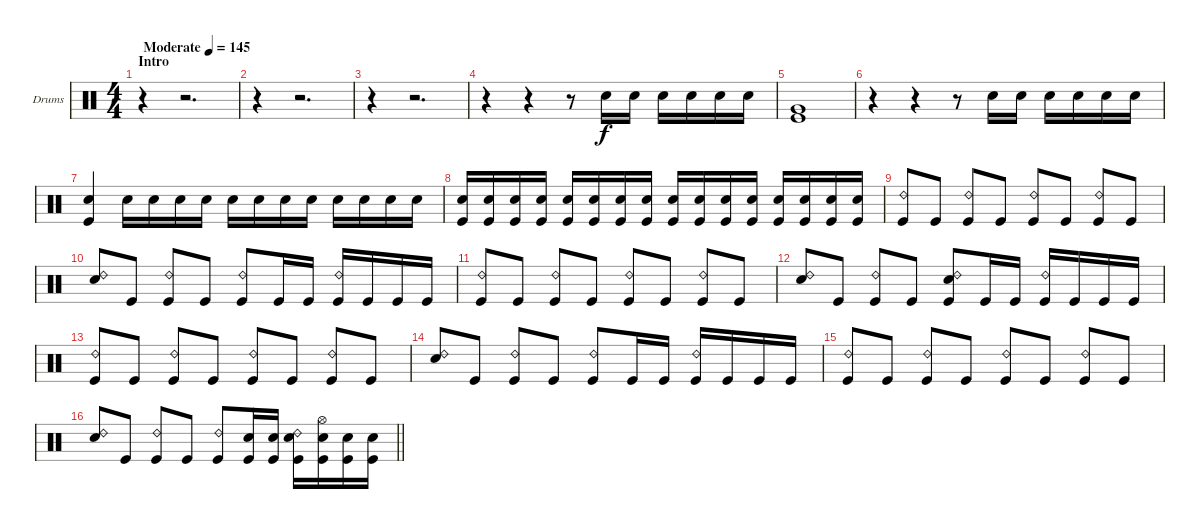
\bracketExtendMode groupsimilarinstruments
\firstSystemTrackNameOrientation horizontal
\otherSystemsTrackNameOrientation horizontal
\track ("Drumkit" "Drums") {instrument percussion}
\staff {score}
\articulation defaults
\ts (4 4)
\beaming (8 2 2 2 2)
\section ("" "Intro")
\tempo (145 "Moderate")
\clef neutral
\ks c
r.4{dy f} r.2{d} |
r.4 r.2{d} |
r.4 r.2{d} |
r.4 r.4 r.8 "Snare (hit) 2".16 "Snare (hit) 2".16 "Snare (hit) 2".16 "Snare (hit) 2".16 "Snare (hit) 2".16 "Snare (hit) 2".16 |
("Very Low Tom (hit)" "Kick (hit)").1 |
r.4 r.4 r.8 "Snare (hit) 2".16 "Snare (hit) 2".16 "Snare (hit) 2".16 "Snare (hit) 2".16 "Snare (hit) 2".16 "Snare (hit) 2".16 |
("Snare (hit) 2" "Kick (hit)").4 "Snare (hit) 2".16 "Snare (hit) 2".16 "Snare (hit) 2".16 "Snare (hit) 2".16 "Snare (hit) 2".16 "Snare (hit) 2".16 "Snare (hit) 2".16 "Snare (hit) 2".16 "Snare (hit) 2".16 "Snare (hit) 2".16 "Snare (hit) 2".16 "Snare (hit) 2".16 |
("Snare (hit) 2" "Kick (hit)").16 ("Snare (hit) 2" "Kick (hit)").16 ("Snare (hit) 2" "Kick (hit)").16 ("Snare (hit) 2" "Kick (hit)").16 ("Snare (hit) 2" "Kick (hit)").16 ("Snare (hit) 2" "Kick (hit)").16 ("Snare (hit) 2" "Kick (hit)").16 ("Snare (hit) 2" "Kick (hit)").16 ("Snare (hit) 2" "Kick (hit)").16 ("Snare (hit) 2" "Kick (hit)").16 ("Snare (hit) 2" "Kick (hit)").16 ("Snare (hit) 2" "Kick (hit)").16 ("Snare (hit) 2" "Kick (hit)").16 ("Snare (hit) 2" "Kick (hit)").16 ("Snare (hit) 2" "Kick (hit)").16 ("Snare (hit) 2" "Kick (hit)").16 |
("Ride (bell) 2" "Kick (hit)").8 "Kick (hit)".8 ("Ride (bell) 2" "Kick (hit)").8 "Kick (hit)".8 ("Ride (bell) 2" "Kick (hit)").8 "Kick (hit)".8 ("Ride (bell) 2" "Kick (hit)").8 "Kick (hit)".8 |
("Ride (bell) 2" "Snare (hit) 2").8 "Kick (hit)".8 ("Ride (bell) 2" "Kick (hit)").8 "Kick (hit)".8 ("Ride (bell) 2" "Kick (hit)").8 "Kick (hit)".16 "Kick (hit)".16 ("Ride (bell) 2" "Kick (hit)").16 "Kick (hit)".16 "Kick (hit)".16 "Kick (hit)".16 |
("Ride (bell) 2" "Kick (hit)").8 "Kick (hit)".8 ("Ride (bell) 2" "Kick (hit)").8 "Kick (hit)".8 ("Ride (bell) 2" "Kick (hit)").8 "Kick (hit)".8 ("Ride (bell) 2" "Kick (hit)").8 "Kick (hit)".8 |
("Ride (bell) 2" "Snare (hit) 2").8 "Kick (hit)".8 ("Ride (bell) 2" "Kick (hit)").8 "Kick (hit)".8 ("Ride (bell) 2" "Snare (hit) 2" "Kick (hit)").8 "Kick (hit)".16 "Kick (hit)".16 ("Ride (bell) 2" "Kick (hit)").16 "Kick (hit)".16 "Kick (hit)".16 "Kick (hit)".16 |
("Ride (bell) 2" "Kick (hit)").8 "Kick (hit)".8 ("Ride (bell) 2" "Kick (hit)").8 "Kick (hit)".8 ("Ride (bell) 2" "Kick (hit)").8 "Kick (hit)".8 ("Ride (bell) 2" "Kick (hit)").8 "Kick (hit)".8 |
("Ride (bell) 2" "Snare (hit) 2").8 "Kick (hit)".8 ("Ride (bell) 2" "Kick (hit)").8 "Kick (hit)".8 ("Ride (bell) 2" "Kick (hit)").8 "Kick (hit)".16 "Kick (hit)".16 ("Ride (bell) 2" "Kick (hit)").16 "Kick (hit)".16 "Kick (hit)".16 "Kick (hit)".16 |
("Ride (bell) 2" "Kick (hit)").8 "Kick (hit)".8 ("Ride (bell) 2" "Kick (hit)").8 "Kick (hit)".8 ("Ride (bell) 2" "Kick (hit)").8 "Kick (hit)".8 ("Ride (bell) 2" "Kick (hit)").8 "Kick (hit)".8 |
\barLineRight lightlight
("Ride (bell) 2" "Snare (hit) 2").8 "Kick (hit)".8 ("Ride (bell) 2" "Kick (hit)").8 "Kick (hit)".8 ("Ride (bell) 2" "Kick (hit)").8 ("Snare (hit) 2" "Kick (hit)").16 ("Snare (hit) 2" "Kick (hit)").16 ("Ride (bell) 2" "Snare (hit) 2" "Kick (hit)").16 ("Hi-Hat (open)" "Snare (hit) 2" "Kick (hit)").16 ("Snare (hit) 2" "Kick (hit)").16 ("Snare (hit) 2" "Kick (hit)").16
